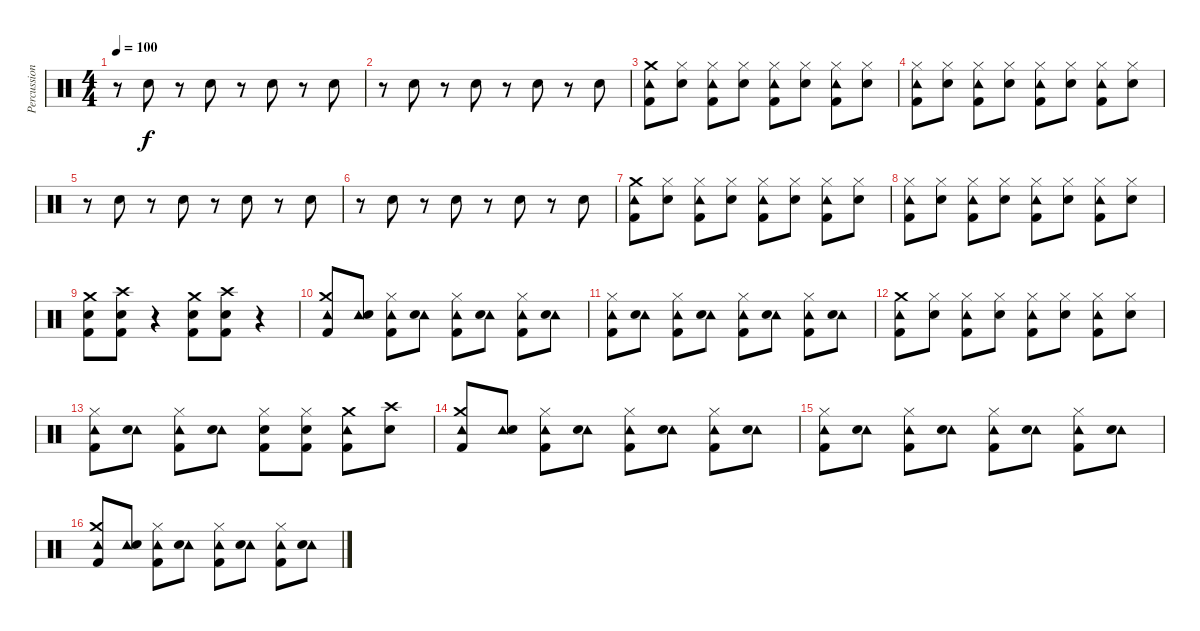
\track ("Percussion" "Percussion") {instrument percussion}
\staff {score}
\articulation defaults
\ts (4 4)
\tempo 100
\clef neutral
\ks c
r.8{dy f} "Electric Snare (hit)".8 r.8 "Electric Snare (hit)".8 r.8 "Electric Snare (hit)".8 r.8 "Electric Snare (hit)".8 |
r.8 "Electric Snare (hit)".8 r.8 "Electric Snare (hit)".8 r.8 "Electric Snare (hit)".8 r.8 "Electric Snare (hit)".8 |
("Tambourine (hit)" "Crash medium (hit)" "Kick (hit) 2").8 ("Hi-Hat (closed)" "Electric Snare (hit)").8 ("Hi-Hat (closed)" "Tambourine (hit)" "Kick (hit) 2").8 ("Hi-Hat (closed)" "Electric Snare (hit)").8 ("Hi-Hat (closed)" "Tambourine (hit)" "Kick (hit) 2").8 ("Hi-Hat (closed)" "Electric Snare (hit)").8 ("Hi-Hat (closed)" "Tambourine (hit)" "Kick (hit) 2").8 ("Hi-Hat (closed)" "Electric Snare (hit)").8 |
("Hi-Hat (closed)" "Tambourine (hit)" "Kick (hit) 2").8 ("Hi-Hat (closed)" "Electric Snare (hit)").8 ("Hi-Hat (closed)" "Tambourine (hit)" "Kick (hit) 2").8 ("Hi-Hat (closed)" "Electric Snare (hit)").8 ("Hi-Hat (closed)" "Tambourine (hit)" "Kick (hit) 2").8 ("Hi-Hat (closed)" "Electric Snare (hit)").8 ("Hi-Hat (closed)" "Tambourine (hit)" "Kick (hit) 2").8 ("Hi-Hat (closed)" "Electric Snare (hit)").8 |
r.8 "Electric Snare (hit)".8 r.8 "Electric Snare (hit)".8 r.8 "Electric Snare (hit)".8 r.8 "Electric Snare (hit)".8 |
r.8 "Electric Snare (hit)".8 r.8 "Electric Snare (hit)".8 r.8 "Electric Snare (hit)".8 r.8 "Electric Snare (hit)".8 |
("Tambourine (hit)" "Crash medium (hit)" "Kick (hit) 2").8 ("Hi-Hat (closed)" "Electric Snare (hit)").8 ("Hi-Hat (closed)" "Tambourine (hit)" "Kick (hit) 2").8 ("Hi-Hat (closed)" "Electric Snare (hit)").8 ("Hi-Hat (closed)" "Tambourine (hit)" "Kick (hit) 2").8 ("Hi-Hat (closed)" "Electric Snare (hit)").8 ("Hi-Hat (closed)" "Tambourine (hit)" "Kick (hit) 2").8 ("Hi-Hat (closed)" "Electric Snare (hit)").8 |
("Hi-Hat (closed)" "Tambourine (hit)" "Kick (hit) 2").8 ("Hi-Hat (closed)" "Electric Snare (hit)").8 ("Hi-Hat (closed)" "Tambourine (hit)" "Kick (hit) 2").8 ("Hi-Hat (closed)" "Electric Snare (hit)").8 ("Hi-Hat (closed)" "Tambourine (hit)" "Kick (hit) 2").8 ("Hi-Hat (closed)" "Electric Snare (hit)").8 ("Hi-Hat (closed)" "Tambourine (hit)" "Kick (hit) 2").8 ("Hi-Hat (closed)" "Electric Snare (hit)").8 |
("Electric Snare (hit)" "Crash medium (hit)" "Kick (hit) 2").8 ("Electric Snare (hit)" "Crash high (hit)" "Kick (hit) 2").8 r.4 ("Electric Snare (hit)" "Crash medium (hit)" "Kick (hit) 2").8 ("Electric Snare (hit)" "Crash high (hit)" "Kick (hit) 2").8 r.4 |
("Tambourine (hit)" "Crash medium (hit)" "Kick (hit) 2").8 ("Tambourine (hit)" "Electric Snare (hit)").8 ("Hi-Hat (closed)" "Tambourine (hit)" "Kick (hit) 2").8 ("Tambourine (hit)" "Electric Snare (hit)").8 ("Hi-Hat (closed)" "Tambourine (hit)" "Kick (hit) 2").8 ("Tambourine (hit)" "Electric Snare (hit)").8 ("Hi-Hat (closed)" "Tambourine (hit)" "Kick (hit) 2").8 ("Tambourine (hit)" "Electric Snare (hit)").8 |
("Hi-Hat (closed)" "Tambourine (hit)" "Kick (hit) 2").8 ("Tambourine (hit)" "Electric Snare (hit)").8 ("Hi-Hat (closed)" "Tambourine (hit)" "Kick (hit) 2").8 ("Tambourine (hit)" "Electric Snare (hit)").8 ("Hi-Hat (closed)" "Tambourine (hit)" "Kick (hit) 2").8 ("Tambourine (hit)" "Electric Snare (hit)").8 ("Hi-Hat (closed)" "Tambourine (hit)" "Kick (hit) 2").8 ("Tambourine (hit)" "Electric Snare (hit)").8 |
("Tambourine (hit)" "Crash medium (hit)" "Kick (hit) 2").8 ("Hi-Hat (closed)" "Electric Snare (hit)").8 ("Hi-Hat (closed)" "Tambourine (hit)" "Kick (hit) 2").8 ("Hi-Hat (closed)" "Electric Snare (hit)").8 ("Hi-Hat (closed)" "Tambourine (hit)" "Kick (hit) 2").8 ("Hi-Hat (closed)" "Electric Snare (hit)").8 ("Hi-Hat (closed)" "Tambourine (hit)" "Kick (hit) 2").8 ("Hi-Hat (closed)" "Electric Snare (hit)").8 |
("Hi-Hat (closed)" "Tambourine (hit)" "Kick (hit) 2").8 ("Tambourine (hit)" "Electric Snare (hit)").8 ("Hi-Hat (closed)" "Tambourine (hit)" "Kick (hit) 2").8 ("Tambourine (hit)" "Electric Snare (hit)").8 ("Hi-Hat (closed)" "Electric Snare (hit)" "Kick (hit) 2").8 ("Hi-Hat (closed)" "Electric Snare (hit)" "Kick (hit) 2").8 ("Tambourine (hit)" "Crash medium (hit)" "Kick (hit) 2").8 ("Electric Snare (hit)" "Crash high (hit)").8 |
("Tambourine (hit)" "Crash medium (hit)" "Kick (hit) 2").8 ("Tambourine (hit)" "Electric Snare (hit)").8 ("Hi-Hat (closed)" "Tambourine (hit)" "Kick (hit) 2").8 ("Tambourine (hit)" "Electric Snare (hit)").8 ("Hi-Hat (closed)" "Tambourine (hit)" "Kick (hit) 2").8 ("Tambourine (hit)" "Electric Snare (hit)").8 ("Hi-Hat (closed)" "Tambourine (hit)" "Kick (hit) 2").8 ("Tambourine (hit)" "Electric Snare (hit)").8 |
("Hi-Hat (closed)" "Tambourine (hit)" "Kick (hit) 2").8 ("Tambourine (hit)" "Electric Snare (hit)").8 ("Hi-Hat (closed)" "Tambourine (hit)" "Kick (hit) 2").8 ("Tambourine (hit)" "Electric Snare (hit)").8 ("Hi-Hat (closed)" "Tambourine (hit)" "Kick (hit) 2").8 ("Tambourine (hit)" "Electric Snare (hit)").8 ("Hi-Hat (closed)" "Tambourine (hit)" "Kick (hit) 2").8 ("Tambourine (hit)" "Electric Snare (hit)").8 |
("Tambourine (hit)" "Crash medium (hit)" "Kick (hit) 2").8 ("Tambourine (hit)" "Electric Snare (hit)").8 ("Hi-Hat (closed)" "Tambourine (hit)" "Kick (hit) 2").8 ("Tambourine (hit)" "Electric Snare (hit)").8 ("Hi-Hat (closed)" "Tambourine (hit)" "Kick (hit) 2").8 ("Tambourine (hit)" "Electric Snare (hit)").8 ("Hi-Hat (closed)" "Tambourine (hit)" "Kick (hit) 2").8 ("Tambourine (hit)" "Electric Snare (hit)").8
